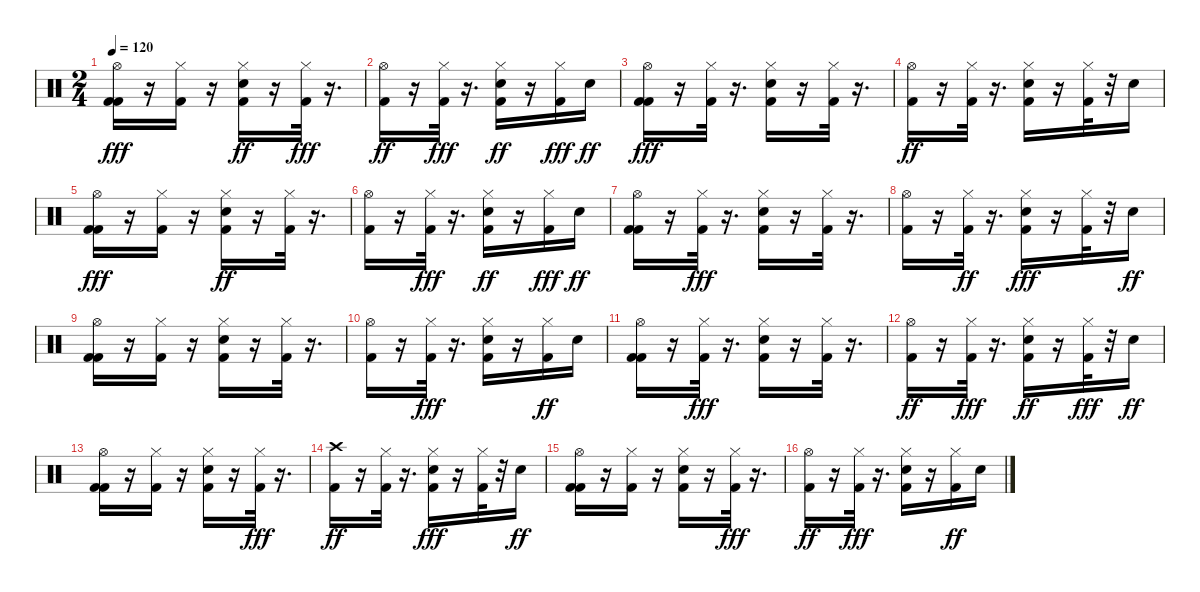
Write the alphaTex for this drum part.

\track "" {instrument percussion}
\staff {score}
\articulation defaults
\ts (2 4)
\tempo 120
\clef neutral
\ks c
("Kick (hit) 2" "Kick (hit) 2" "Hi-Hat (open)").16{dy fff} r.16 ("Kick (hit) 2" "Hi-Hat (closed)").16 r.16 ("Hi-Hat (closed)" "Snare (hit) 2" "Kick (hit) 2").16{dy ff} r.16 ("Kick (hit) 2" "Hi-Hat (closed)").32{dy fff} r.16{d} |
("Hi-Hat (open)" "Kick (hit) 2").16{dy ff} r.16 ("Kick (hit) 2" "Hi-Hat (closed)").32{dy fff} r.16{d} ("Snare (hit) 2" "Hi-Hat (closed)" "Kick (hit) 2").16{dy ff} r.16 ("Kick (hit) 2" "Hi-Hat (closed)").16{dy fff} "Snare (hit) 2".16{dy ff} |
("Kick (hit) 2" "Kick (hit) 2" "Hi-Hat (open)").16{dy fff} r.16 ("Kick (hit) 2" "Hi-Hat (closed)").32 r.16{d} ("Snare (hit) 2" "Kick (hit) 2" "Hi-Hat (closed)").16 r.16 ("Kick (hit) 2" "Hi-Hat (closed)").32 r.16{d} |
("Hi-Hat (open)" "Kick (hit) 2").16{dy ff} r.16 ("Hi-Hat (closed)" "Kick (hit) 2").32 r.16{d} ("Snare (hit) 2" "Hi-Hat (closed)" "Kick (hit) 2").16 r.16 ("Hi-Hat (closed)" "Kick (hit) 2").32 r.32 "Snare (hit) 2".16 |
("Kick (hit) 2" "Kick (hit) 2" "Hi-Hat (open)").16{dy fff} r.16 ("Kick (hit) 2" "Hi-Hat (closed)").16 r.16 ("Snare (hit) 2" "Hi-Hat (closed)" "Kick (hit) 2").16{dy ff} r.16 ("Hi-Hat (closed)" "Kick (hit) 2").32 r.16{d} |
("Hi-Hat (open)" "Kick (hit) 2").16 r.16 ("Kick (hit) 2" "Hi-Hat (closed)").32{dy fff} r.16{d} ("Hi-Hat (closed)" "Snare (hit) 2" "Kick (hit) 2").16{dy ff} r.16 ("Kick (hit) 2" "Hi-Hat (closed)").16{dy fff} "Snare (hit) 2".16{dy ff} |
("Hi-Hat (open)" "Kick (hit) 2" "Kick (hit) 2").16 r.16 ("Kick (hit) 2" "Hi-Hat (closed)").32{dy fff} r.16{d} ("Kick (hit) 2" "Snare (hit) 2" "Hi-Hat (closed)").16 r.16 ("Kick (hit) 2" "Hi-Hat (closed)").32 r.16{d} |
("Kick (hit) 2" "Hi-Hat (open)").16 r.16 ("Hi-Hat (closed)" "Kick (hit) 2").32{dy ff} r.16{d} ("Snare (hit) 2" "Kick (hit) 2" "Hi-Hat (closed)").16{dy fff} r.16 ("Kick (hit) 2" "Hi-Hat (closed)").32 r.32 "Snare (hit) 2".16{dy ff} |
("Hi-Hat (open)" "Kick (hit) 2" "Kick (hit) 2").16 r.16 ("Hi-Hat (closed)" "Kick (hit) 2").16 r.16 ("Kick (hit) 2" "Hi-Hat (closed)" "Snare (hit) 2").16 r.16 ("Hi-Hat (closed)" "Kick (hit) 2").32 r.16{d} |
("Hi-Hat (open)" "Kick (hit) 2").16 r.16 ("Kick (hit) 2" "Hi-Hat (closed)").32{dy fff} r.16{d} ("Snare (hit) 2" "Kick (hit) 2" "Hi-Hat (closed)").16 r.16 ("Hi-Hat (closed)" "Kick (hit) 2").16{dy ff} "Snare (hit) 2".16 |
("Hi-Hat (open)" "Kick (hit) 2" "Kick (hit) 2").16 r.16 ("Kick (hit) 2" "Hi-Hat (closed)").32{dy fff} r.16{d} ("Kick (hit) 2" "Snare (hit) 2" "Hi-Hat (closed)").16 r.16 ("Kick (hit) 2" "Hi-Hat (closed)").32 r.16{d} |
("Hi-Hat (open)" "Kick (hit) 2").16{dy ff} r.16 ("Kick (hit) 2" "Hi-Hat (closed)").32{dy fff} r.16{d} ("Kick (hit) 2" "Hi-Hat (closed)" "Snare (hit) 2").16{dy ff} r.16 ("Kick (hit) 2" "Hi-Hat (closed)").32{dy fff} r.32 "Snare (hit) 2".16{dy ff} |
("Kick (hit) 2" "Hi-Hat (open)" "Kick (hit) 2").16 r.16 ("Hi-Hat (closed)" "Kick (hit) 2").16 r.16 ("Hi-Hat (closed)" "Snare (hit) 2" "Kick (hit) 2").16 r.16 ("Kick (hit) 2" "Hi-Hat (closed)").32{dy fff} r.16{d} |
("Crash high (hit)" "Kick (hit) 2").16{dy ff} r.16 ("Hi-Hat (closed)" "Kick (hit) 2").32 r.16{d} ("Kick (hit) 2" "Snare (hit) 2" "Hi-Hat (closed)").16{dy fff} r.16 ("Kick (hit) 2" "Hi-Hat (closed)").32 r.32 "Snare (hit) 2".16{dy ff} |
("Kick (hit) 2" "Hi-Hat (open)" "Kick (hit) 2").16 r.16 ("Hi-Hat (closed)" "Kick (hit) 2").16 r.16 ("Snare (hit) 2" "Hi-Hat (closed)" "Kick (hit) 2").16 r.16 ("Kick (hit) 2" "Hi-Hat (closed)").32{dy fff} r.16{d} |
("Hi-Hat (open)" "Kick (hit) 2").16{dy ff} r.16 ("Kick (hit) 2" "Hi-Hat (closed)").32{dy fff} r.16{d} ("Snare (hit) 2" "Kick (hit) 2" "Hi-Hat (closed)").16 r.16 ("Hi-Hat (closed)" "Kick (hit) 2").16{dy ff} "Snare (hit) 2".16
